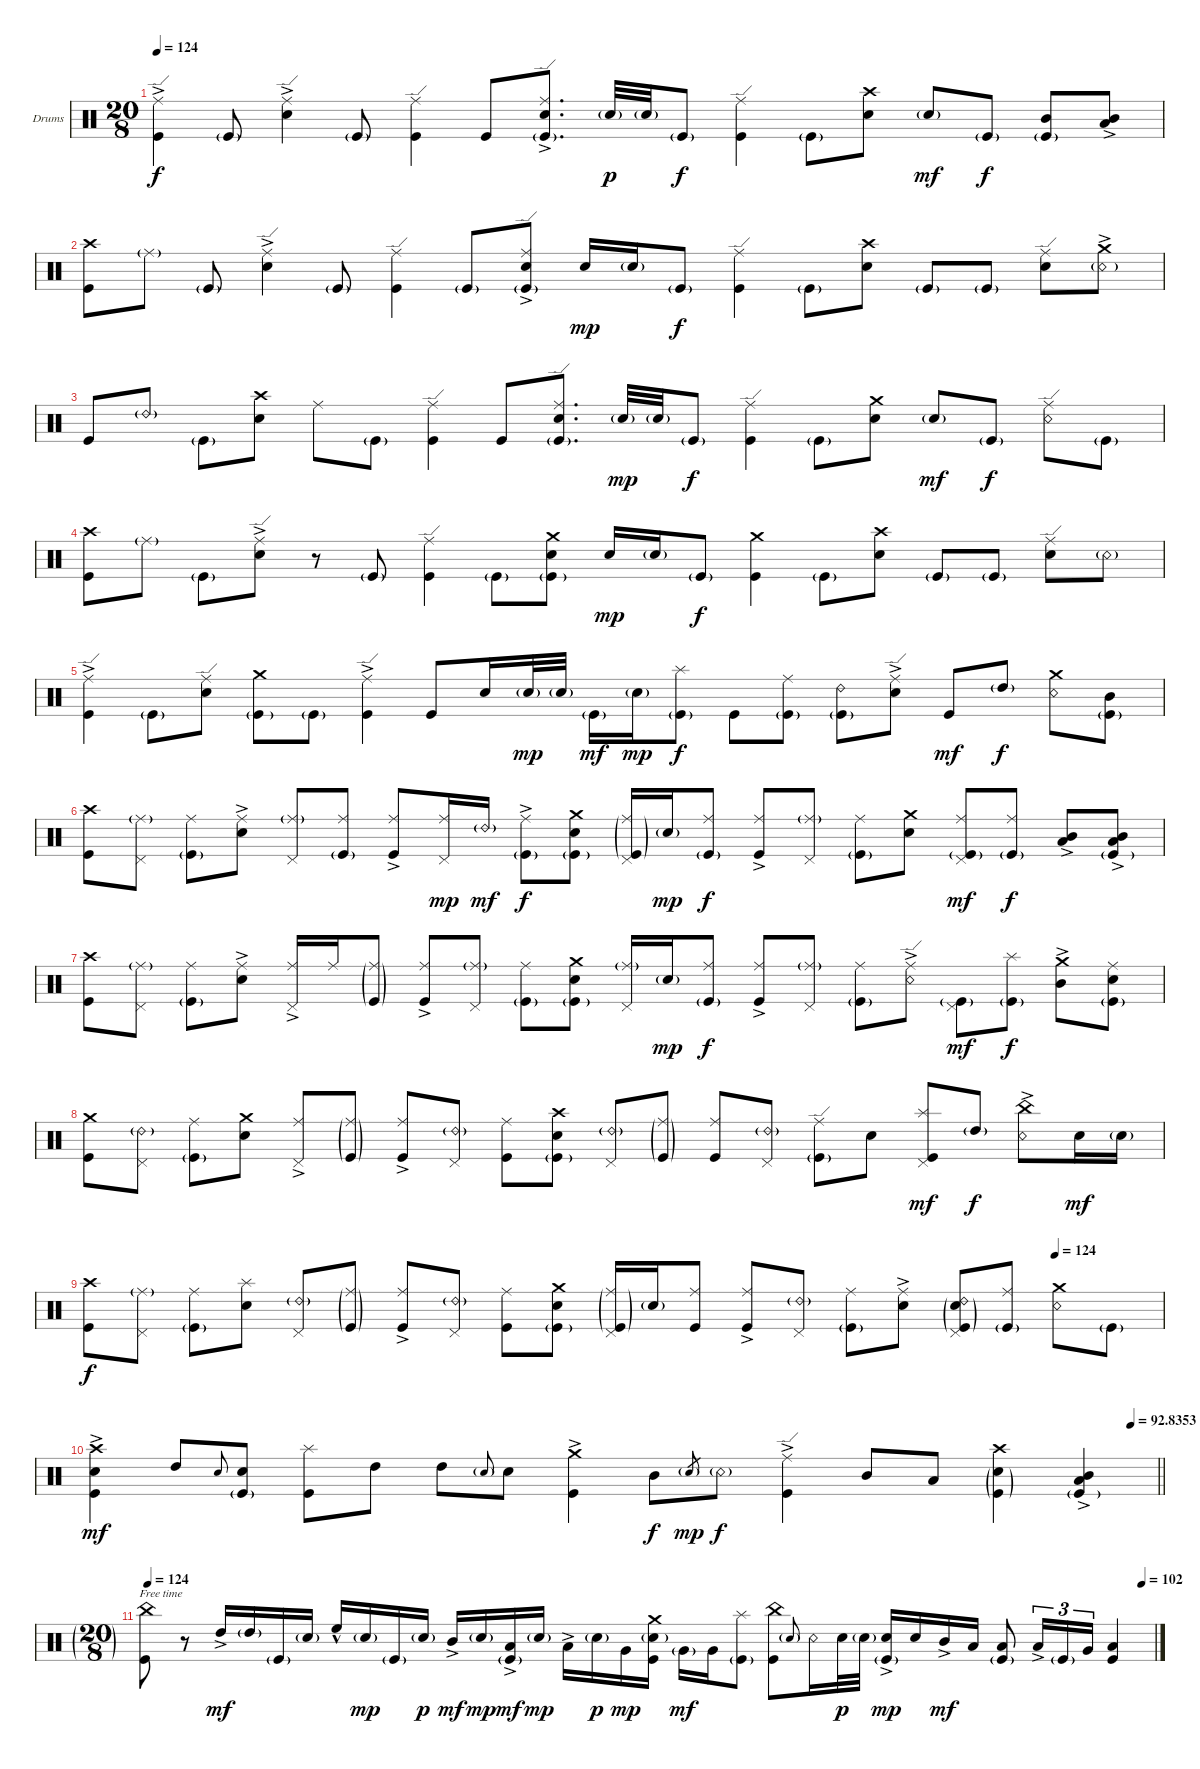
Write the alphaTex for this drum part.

\bracketExtendMode groupsimilarinstruments
\firstSystemTrackNameOrientation horizontal
\otherSystemsTrackNameOrientation horizontal
\track ("Drumkit" "Drums") {instrument percussion}
\staff {score}
\articulation defaults
\ts (20 8)
\tempo 124
\clef neutral
\ks c
("Kick (hit)" "Ride (edge)"{ac}).4{dy f} "Kick (hit)"{g}.8 ("Snare (hit) 2" "Ride (edge)"{ac}).4 "Kick (hit)"{g}.8 ("Kick (hit)" "Ride (edge)").4 "Kick (hit)".8 ("Snare (hit) 2" "Ride (edge)"{ac} "Kick (hit)"{g}).8{d} "Snare (hit) 2"{g}.32{dy p} "Snare (hit) 2"{g}.32 "Kick (hit)"{g}.8{dy f} ("Kick (hit)" "Ride (edge)").4 "Kick (hit)"{g}.8 ("Snare (hit) 2" "Crash high (hit)").8 "Snare (hit) 2"{g}.8{dy mf} "Kick (hit)"{g}.8{dy f} ("Mid Tom (hit)" "Kick (hit)"{g}).8 ("Mid Tom (hit)" "Low Tom (hit)"{ac}).8 |
("Kick (hit)" "Crash high (hit)").8 "Ride (middle)"{g}.8 "Kick (hit)"{g}.8 ("Snare (hit) 2" "Ride (edge)"{ac}).4 "Kick (hit)"{g}.8 ("Kick (hit)" "Ride (edge)").4 "Kick (hit)"{g}.8 ("Snare (hit) 2" "Ride (edge)"{ac} "Kick (hit)"{g}).8 "Snare (hit) 2".16{dy mp} "Snare (hit) 2"{g}.16 "Kick (hit)"{g}.8{dy f} ("Kick (hit)" "Ride (edge)").4 "Kick (hit)"{g}.8 ("Snare (hit) 2" "Crash high (hit)").8 "Kick (hit)"{g}.8 "Kick (hit)"{g}.8 ("Snare (hit) 2" "Ride (edge)").8 ("Snare (rim shot)"{g} "Crash medium (hit)"{ac}).8 |
"Kick (hit)".8 "Ride (bell) 2"{g}.8 "Kick (hit)"{g}.8 ("Snare (hit) 2" "Crash high (hit)").8 "Ride (middle)".8 "Kick (hit)"{g}.8 ("Kick (hit)" "Ride (edge)").4 "Kick (hit)".8 ("Snare (hit) 2" "Ride (edge)" "Kick (hit)"{g}).8{d} "Snare (hit) 2"{g}.32{dy mp} "Snare (hit) 2"{g}.32 "Kick (hit)"{g}.8{dy f} ("Kick (hit)" "Ride (edge)").4 "Kick (hit)"{g}.8 ("Snare (hit) 2" "Crash medium (hit)").8 "Snare (hit) 2"{g}.8{dy mf} "Kick (hit)"{g}.8{dy f} ("Snare (rim shot)" "Ride (edge)").8 "Kick (hit)"{g}.8 |
("Kick (hit)" "Crash high (hit)").8 "Ride (middle)"{g}.8 "Kick (hit)"{g}.8 ("Snare (hit) 2" "Ride (edge)"{ac}).8 r.8 "Kick (hit)"{g}.8 ("Kick (hit)" "Ride (edge)").4 "Kick (hit)"{g}.8 ("Snare (hit) 2" "Crash medium (hit)" "Kick (hit)"{g}).8 "Snare (hit) 2".16{dy mp} "Snare (hit) 2"{g}.16 "Kick (hit)"{g}.8{dy f} ("Kick (hit)" "Crash medium (hit)").4 "Kick (hit)"{g}.8 ("Snare (hit) 2" "Crash high (hit)").8 "Kick (hit)"{g}.8 "Kick (hit)"{g}.8 ("Snare (hit) 2" "Ride (edge)").8 "Snare (rim shot)"{g}.8 |
("Kick (hit)" "Ride (edge)"{ac}).4 "Kick (hit)"{g}.8 ("Snare (hit) 2" "Ride (edge)").8 ("Kick (hit)"{g} "Crash medium (hit)").8 "Kick (hit)"{g}.8 ("Kick (hit)" "Ride (edge)"{ac}).4 "Kick (hit)".8 "Snare (hit) 2".16 "Snare (hit) 2"{g}.32{dy mp} "Snare (hit) 2"{g}.32 "Kick (hit)"{g}.16{dy mf} "Snare (hit) 2"{g}.16{dy mp} ("Kick (hit)"{g} "Splash (hit)").8{dy f} "Kick (hit)".8 ("Ride (middle)" "Kick (hit)"{g}).8 ("Ride (bell) 2" "Kick (hit)"{g}).8 ("Ride (edge)"{ac} "Snare (hit) 2").8 "Kick (hit)".8{dy mf} "High Tom (hit)"{g}.8{dy f} ("Snare (rim shot)" "Crash medium (hit)").8 ("Kick (hit)"{g} "Mid Tom (hit)").8 |
("Kick (hit)" "Crash high (hit)").8 ("Ride (middle)"{g} "Pedal Hi-Hat (hit)").8 ("Ride (middle)" "Kick (hit)"{g}).8 ("Ride (middle)"{ac} "Snare (hit) 2").8 ("Ride (middle)"{g} "Pedal Hi-Hat (hit)").8 ("Ride (middle)" "Kick (hit)"{g}).8 ("Ride (middle)"{ac} "Kick (hit)").8 ("Ride (middle)" "Pedal Hi-Hat (hit)").16{dy mp} "Ride (bell) 2"{g}.16{dy mf} ("Ride (middle)"{ac} "Kick (hit)"{g}).8{dy f} ("Snare (hit) 2" "Crash medium (hit)" "Kick (hit)"{g}).8 ("Ride (middle)"{g} "Kick (hit)"{g} "Pedal Hi-Hat (hit)").16 "Snare (hit) 2"{g}.16{dy mp} ("Ride (middle)" "Kick (hit)"{g}).8{dy f} ("Kick (hit)" "Ride (middle)"{ac}).8 ("Ride (middle)"{g} "Pedal Hi-Hat (hit)").8 ("Ride (middle)" "Kick (hit)"{g}).8 ("Snare (hit) 2" "Crash medium (hit)").8 ("Ride (middle)" "Kick (hit)"{g} "Pedal Hi-Hat (hit)").8{dy mf} ("Ride (middle)" "Kick (hit)"{g}).8{dy f} ("Mid Tom (hit)"{ac} "Low Tom (hit)"{ac}).8 ("Mid Tom (hit)" "Low Tom (hit)"{ac} "Kick (hit)"{g}).8 |
("Kick (hit)" "Crash high (hit)").8 ("Ride (middle)"{g} "Pedal Hi-Hat (hit)").8 ("Ride (middle)" "Kick (hit)"{g}).8 ("Ride (middle)"{ac} "Snare (hit) 2").8 ("Ride (middle)"{ac} "Pedal Hi-Hat (hit)").16 "Ride (middle)".16 ("Ride (middle)"{g} "Kick (hit)"{g}).8 ("Ride (middle)"{ac} "Kick (hit)").8 ("Ride (middle)"{g} "Pedal Hi-Hat (hit)").8 ("Ride (middle)" "Kick (hit)"{g}).8 ("Snare (hit) 2" "Crash medium (hit)" "Kick (hit)"{g}).8 ("Ride (middle)"{g} "Pedal Hi-Hat (hit)").16 "Snare (hit) 2"{g}.16{dy mp} ("Ride (middle)" "Kick (hit)"{g}).8{dy f} ("Kick (hit)" "Ride (middle)"{ac}).8 ("Ride (middle)"{g} "Pedal Hi-Hat (hit)").8 ("Ride (middle)" "Kick (hit)"{g}).8 ("Ride (edge)"{ac} "Snare (rim shot)").8 ("Kick (hit)"{g} "Pedal Hi-Hat (hit)").8{dy mf} ("Kick (hit)"{g} "Splash (hit)").8{dy f} ("Mid Tom (hit)"{ac} "Crash medium (hit)").8 ("Kick (hit)"{g} "Snare (hit) 2" "Ride (middle)").8 |
("Kick (hit)" "Crash medium (hit)").8 ("Ride (bell) 2"{g} "Pedal Hi-Hat (hit)").8 ("Ride (middle)" "Kick (hit)"{g}).8 ("Snare (hit) 2" "Crash medium (hit)").8 ("Ride (middle)"{ac} "Pedal Hi-Hat (hit)").8 ("Ride (middle)"{g} "Kick (hit)"{g}).8 ("Ride (middle)"{ac} "Kick (hit)").8 ("Ride (bell) 2"{g} "Pedal Hi-Hat (hit)").8 ("Ride (middle)" "Kick (hit)").8 ("Snare (hit) 2" "Kick (hit)"{g} "Crash high (hit)").8 ("Ride (bell) 2"{g} "Pedal Hi-Hat (hit)").8 ("Ride (middle)"{g} "Kick (hit)"{g}).8 ("Ride (middle)" "Kick (hit)").8 ("Ride (bell) 2"{g} "Pedal Hi-Hat (hit)").8 ("Kick (hit)"{g} "Ride (edge)").8 "Snare (hit) 2".8 ("Kick (hit)" "Splash (hit)" "Pedal Hi-Hat (hit)").8{dy mf} "High Tom (hit)"{g}.8{dy f} ("Snare (rim shot)" "China (hit)"{ac}).8 "Snare (hit) 2".16{dy mf} "Snare (hit) 2"{g}.16 |
\tempo (124 0.9)
("Kick (hit)" "Crash high (hit)").8{dy f} ("Ride (middle)"{g} "Pedal Hi-Hat (hit)").8 ("Ride (middle)" "Kick (hit)"{g}).8 ("Snare (hit) 2" "Splash (hit)").8 ("Ride (bell) 2"{g} "Pedal Hi-Hat (hit)").8 ("Ride (middle)"{g} "Kick (hit)"{g}).8 ("Ride (middle)"{ac} "Kick (hit)").8 ("Ride (bell) 2"{g} "Pedal Hi-Hat (hit)").8 ("Ride (middle)" "Kick (hit)").8 ("Snare (hit) 2" "Crash medium (hit)" "Kick (hit)"{g}).8 ("Kick (hit)"{g} "Pedal Hi-Hat (hit)" "Ride (middle)"{g}).16 "Snare (hit) 2"{g}.16 ("Ride (middle)" "Kick (hit)").8 ("Kick (hit)" "Ride (middle)"{ac}).8 ("Ride (bell) 2"{g} "Pedal Hi-Hat (hit)").8 ("Ride (middle)" "Kick (hit)"{g}).8 ("Ride (middle)"{ac} "Snare (hit) 2").8 ("Ride (bell) 2"{g} "Snare (hit) 2"{g} "Kick (hit)"{g} "Pedal Hi-Hat (hit)").8 ("Ride (middle)" "Kick (hit)"{g}).8 ("Snare (rim shot)" "Crash medium (hit)").8 "Kick (hit)"{g}.8 |
\tempo (92.8353 0.975)
\barLineRight lightlight
("Kick (hit)" "Crash high (hit)"{ac} "Snare (hit) 2").4{dy mf} "High Tom (hit)".8 "Snare (hit) 2".8{gr onbeat} ("Snare (hit) 2" "Kick (hit)"{g}).8 ("Kick (hit)" "Splash (hit)").8 "High Tom (hit)".8 "High Tom (hit)".8 "Snare (hit) 2"{g}.8{gr onbeat} "Snare (hit) 2".8 ("Kick (hit)" "Crash medium (hit)"{ac}).4 "Mid Tom (hit)".8{dy f} "Snare (hit) 2"{g}.8{gr dy mp} "Snare (rim shot)"{g}.8{dy f} ("Kick (hit)" "Ride (edge)"{ac}).4 "Mid Tom (hit)".8 "Low Tom (hit)".8 ("Kick (hit)"{g} "Snare (hit) 2"{g} "Crash high (hit)").4 ("Mid Tom (hit)" "Low Tom (hit)"{ac} "Kick (hit)"{g}).4 |
\ft
\tempo 124
\tempo (102 0.9875)
("Kick (hit)" "China (hit)").8 r.8 "High Tom (hit)"{ac}.16{dy mf} "High Tom (hit)"{g}.16 "Kick (hit)"{g}.16 "Snare (hit) 2"{g}.16 "High Floor Tom (hit)"{hac}.16 "Snare (hit) 2"{g}.16{dy mp} "Kick (hit)"{g}.16 "Snare (hit) 2"{g}.16{dy p} "Mid Tom (hit)"{ac}.16{dy mf} "Snare (hit) 2"{g}.16{dy mp} ("Low Tom (hit)"{ac} "Kick (hit)"{g}).16{dy mf} "Snare (hit) 2"{g}.16{dy mp} "Low Tom (hit)"{ac}.16 "Snare (hit) 2"{g}.16{dy p} "Very Low Tom (hit)".16{dy mp} ("Snare (hit) 2"{g} "Crash medium (hit)" "Kick (hit)").16 "Very Low Tom (hit)"{g}.16{dy mf} "Very Low Tom (hit)".16 ("Kick (hit)"{g} "Splash (hit)").8 ("Kick (hit)" "China (hit)").8 "Snare (hit) 2"{g}.8{gr onbeat} "Snare (rim shot)".16 "Snare (hit) 2".32{dy p} "Snare (hit) 2"{g}.32 ("Snare (hit) 2"{ac} "Kick (hit)"{g}).16{dy mp} "Snare (hit) 2".16 "Mid Tom (hit)"{ac}.16{dy mf} "Low Tom (hit)".16 ("Low Tom (hit)" "Kick (hit)"{g}).8 "Low Tom (hit)"{ac}.16{tu (3 2)} "Kick (hit)"{g}.16{tu (3 2)} "Very Low Tom (hit)".16{tu (3 2)} ("Kick (hit)" "Low Tom (hit)").4
